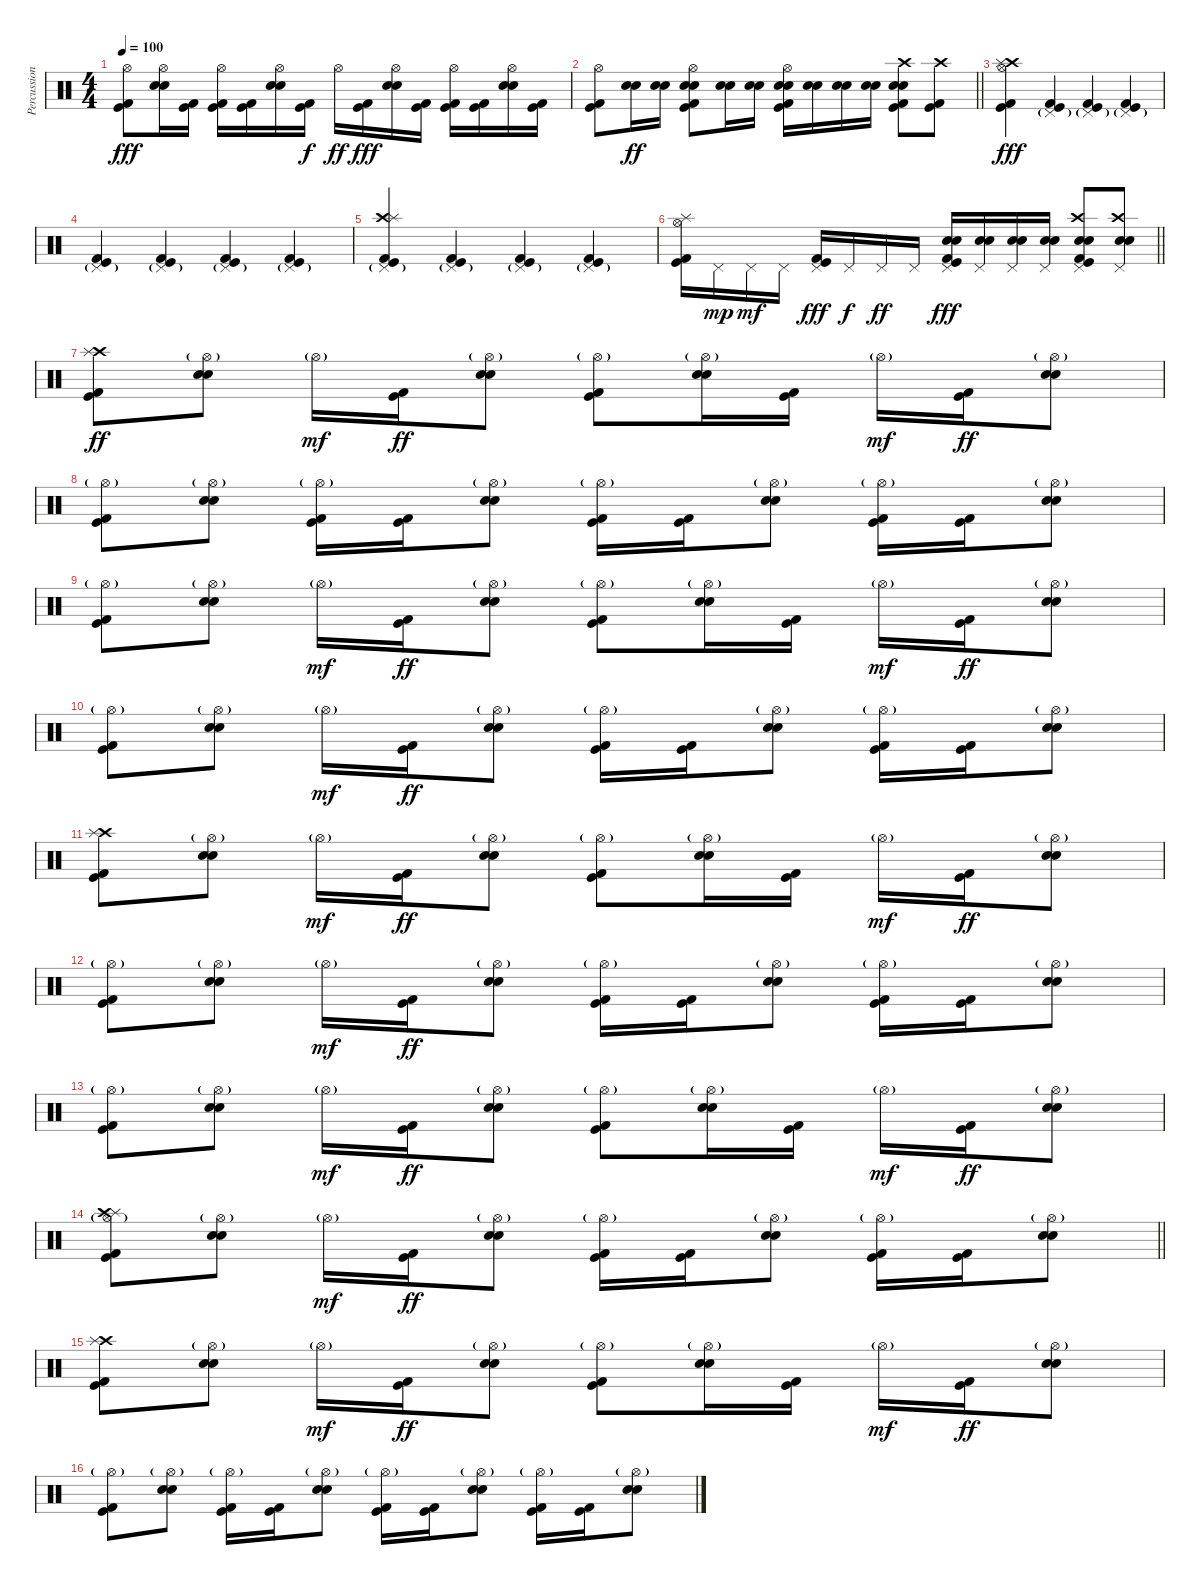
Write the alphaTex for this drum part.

\track ("Percussion" "Percussion") {instrument percussion}
\staff {score}
\articulation defaults
\ts (4 4)
\tempo 100
\clef neutral
\ks c
("Hi-Hat (open)" "Kick (hit)" "Kick (hit) 2").8{dy fff} ("Hi-Hat (open)" "Electric Snare (hit)" "Snare (hit) 2").16 ("Kick (hit)" "Kick (hit) 2").16 ("Hi-Hat (open)" "Kick (hit)" "Kick (hit) 2").16 ("Kick (hit)" "Kick (hit) 2").16 ("Hi-Hat (open)" "Electric Snare (hit)" "Snare (hit) 2").16 ("Kick (hit)" "Kick (hit) 2").16{dy f} "Hi-Hat (open)".16{dy ff} ("Kick (hit)" "Kick (hit) 2").16{dy fff} ("Hi-Hat (open)" "Electric Snare (hit)" "Snare (hit) 2").16 ("Kick (hit)" "Kick (hit) 2").16 ("Hi-Hat (open)" "Kick (hit)" "Kick (hit) 2").16 ("Kick (hit)" "Kick (hit) 2").16 ("Hi-Hat (open)" "Electric Snare (hit)" "Snare (hit) 2").16 ("Kick (hit)" "Kick (hit) 2").16 |
\barLineRight lightlight
("Hi-Hat (open)" "Kick (hit)" "Kick (hit) 2").8 ("Electric Snare (hit)" "Snare (hit) 2").16{dy ff} ("Electric Snare (hit)" "Snare (hit) 2").16 ("Hi-Hat (open)" "Electric Snare (hit)" "Snare (hit) 2" "Kick (hit)" "Kick (hit) 2").8 ("Electric Snare (hit)" "Snare (hit) 2").16 ("Electric Snare (hit)" "Snare (hit) 2").16 ("Hi-Hat (open)" "Electric Snare (hit)" "Snare (hit) 2" "Kick (hit)" "Kick (hit) 2").16 ("Electric Snare (hit)" "Snare (hit) 2").16 ("Electric Snare (hit)" "Snare (hit) 2").16 ("Electric Snare (hit)" "Snare (hit) 2").16 ("Crash high (hit)" "Electric Snare (hit)" "Snare (hit) 2" "Kick (hit)" "Kick (hit) 2").8 ("Crash high (hit)" "Kick (hit)" "Kick (hit) 2").8 |
("Crash high (hit)" "Splash (hit)" "Hi-Hat (open)" "Kick (hit)" "Kick (hit) 2").4{dy fff} ("Pedal Hi-Hat (hit)"{g} "Kick (hit)" "Kick (hit) 2").4 ("Pedal Hi-Hat (hit)"{g} "Kick (hit)" "Kick (hit) 2").4 ("Pedal Hi-Hat (hit)"{g} "Kick (hit)" "Kick (hit) 2").4 |
("Pedal Hi-Hat (hit)"{g} "Kick (hit)" "Kick (hit) 2").4 ("Pedal Hi-Hat (hit)"{g} "Kick (hit)" "Kick (hit) 2").4 ("Pedal Hi-Hat (hit)"{g} "Kick (hit)" "Kick (hit) 2").4 ("Pedal Hi-Hat (hit)"{g} "Kick (hit)" "Kick (hit) 2").4 |
("Crash high (hit)" "Splash (hit)" "Pedal Hi-Hat (hit)"{g} "Kick (hit)" "Kick (hit) 2").4 ("Pedal Hi-Hat (hit)"{g} "Kick (hit)" "Kick (hit) 2").4 ("Pedal Hi-Hat (hit)"{g} "Kick (hit)" "Kick (hit) 2").4 ("Pedal Hi-Hat (hit)"{g} "Kick (hit)" "Kick (hit) 2").4 |
\barLineRight lightlight
("Splash (hit)" "Hi-Hat (open)" "Kick (hit)" "Kick (hit) 2").16 "Pedal Hi-Hat (hit)".16{dy mp} "Pedal Hi-Hat (hit)".16{dy mf} "Pedal Hi-Hat (hit)".16 ("Pedal Hi-Hat (hit)" "Kick (hit)" "Kick (hit) 2").16{dy fff} "Pedal Hi-Hat (hit)".16{dy f} "Pedal Hi-Hat (hit)".16{dy ff} "Pedal Hi-Hat (hit)".16 ("Electric Snare (hit)" "Snare (hit) 2" "Pedal Hi-Hat (hit)" "Kick (hit)" "Kick (hit) 2").16{dy fff} ("Electric Snare (hit)" "Snare (hit) 2" "Pedal Hi-Hat (hit)").16 ("Electric Snare (hit)" "Snare (hit) 2" "Pedal Hi-Hat (hit)").16 ("Electric Snare (hit)" "Snare (hit) 2" "Pedal Hi-Hat (hit)").16 ("Crash high (hit)" "Electric Snare (hit)" "Snare (hit) 2" "Pedal Hi-Hat (hit)" "Kick (hit)" "Kick (hit) 2").8 ("Crash high (hit)" "Electric Snare (hit)" "Snare (hit) 2" "Pedal Hi-Hat (hit)").8 |
("Crash high (hit)" "Splash (hit)" "Kick (hit)" "Kick (hit) 2").8{dy ff} ("Hi-Hat (open)"{g} "Electric Snare (hit)" "Snare (hit) 2").8 "Hi-Hat (open)"{g}.16{dy mf} ("Kick (hit)" "Kick (hit) 2").16{dy ff} ("Hi-Hat (open)"{g} "Electric Snare (hit)" "Snare (hit) 2").8 ("Hi-Hat (open)"{g} "Kick (hit)" "Kick (hit) 2").8 ("Hi-Hat (open)"{g} "Electric Snare (hit)" "Snare (hit) 2").16 ("Kick (hit)" "Kick (hit) 2").16 "Hi-Hat (open)"{g}.16{dy mf} ("Kick (hit)" "Kick (hit) 2").16{dy ff} ("Hi-Hat (open)"{g} "Electric Snare (hit)" "Snare (hit) 2").8 |
("Hi-Hat (open)"{g} "Kick (hit)" "Kick (hit) 2").8 ("Hi-Hat (open)"{g} "Electric Snare (hit)" "Snare (hit) 2").8 ("Hi-Hat (open)"{g} "Kick (hit)" "Kick (hit) 2").16 ("Kick (hit)" "Kick (hit) 2").16 ("Hi-Hat (open)"{g} "Electric Snare (hit)" "Snare (hit) 2").8 ("Hi-Hat (open)"{g} "Kick (hit)" "Kick (hit) 2").16 ("Kick (hit)" "Kick (hit) 2").16 ("Hi-Hat (open)"{g} "Electric Snare (hit)" "Snare (hit) 2").8 ("Hi-Hat (open)"{g} "Kick (hit)" "Kick (hit) 2").16 ("Kick (hit)" "Kick (hit) 2").16 ("Hi-Hat (open)"{g} "Electric Snare (hit)" "Snare (hit) 2").8 |
("Hi-Hat (open)"{g} "Kick (hit)" "Kick (hit) 2").8 ("Hi-Hat (open)"{g} "Electric Snare (hit)" "Snare (hit) 2").8 "Hi-Hat (open)"{g}.16{dy mf} ("Kick (hit)" "Kick (hit) 2").16{dy ff} ("Hi-Hat (open)"{g} "Electric Snare (hit)" "Snare (hit) 2").8 ("Hi-Hat (open)"{g} "Kick (hit)" "Kick (hit) 2").8 ("Hi-Hat (open)"{g} "Electric Snare (hit)" "Snare (hit) 2").16 ("Kick (hit)" "Kick (hit) 2").16 "Hi-Hat (open)"{g}.16{dy mf} ("Kick (hit)" "Kick (hit) 2").16{dy ff} ("Hi-Hat (open)"{g} "Electric Snare (hit)" "Snare (hit) 2").8 |
("Hi-Hat (open)"{g} "Kick (hit)" "Kick (hit) 2").8 ("Hi-Hat (open)"{g} "Electric Snare (hit)" "Snare (hit) 2").8 "Hi-Hat (open)"{g}.16{dy mf} ("Kick (hit)" "Kick (hit) 2").16{dy ff} ("Hi-Hat (open)"{g} "Electric Snare (hit)" "Snare (hit) 2").8 ("Hi-Hat (open)"{g} "Kick (hit)" "Kick (hit) 2").16 ("Kick (hit)" "Kick (hit) 2").16 ("Hi-Hat (open)"{g} "Electric Snare (hit)" "Snare (hit) 2").8 ("Hi-Hat (open)"{g} "Kick (hit)" "Kick (hit) 2").16 ("Kick (hit)" "Kick (hit) 2").16 ("Hi-Hat (open)"{g} "Electric Snare (hit)" "Snare (hit) 2").8 |
("Crash high (hit)" "Splash (hit)" "Kick (hit)" "Kick (hit) 2").8 ("Hi-Hat (open)"{g} "Electric Snare (hit)" "Snare (hit) 2").8 "Hi-Hat (open)"{g}.16{dy mf} ("Kick (hit)" "Kick (hit) 2").16{dy ff} ("Hi-Hat (open)"{g} "Electric Snare (hit)" "Snare (hit) 2").8 ("Hi-Hat (open)"{g} "Kick (hit)" "Kick (hit) 2").8 ("Hi-Hat (open)"{g} "Electric Snare (hit)" "Snare (hit) 2").16 ("Kick (hit)" "Kick (hit) 2").16 "Hi-Hat (open)"{g}.16{dy mf} ("Kick (hit)" "Kick (hit) 2").16{dy ff} ("Hi-Hat (open)"{g} "Electric Snare (hit)" "Snare (hit) 2").8 |
("Hi-Hat (open)"{g} "Kick (hit)" "Kick (hit) 2").8 ("Hi-Hat (open)"{g} "Electric Snare (hit)" "Snare (hit) 2").8 "Hi-Hat (open)"{g}.16{dy mf} ("Kick (hit)" "Kick (hit) 2").16{dy ff} ("Hi-Hat (open)"{g} "Electric Snare (hit)" "Snare (hit) 2").8 ("Hi-Hat (open)"{g} "Kick (hit)" "Kick (hit) 2").16 ("Kick (hit)" "Kick (hit) 2").16 ("Hi-Hat (open)"{g} "Electric Snare (hit)" "Snare (hit) 2").8 ("Hi-Hat (open)"{g} "Kick (hit)" "Kick (hit) 2").16 ("Kick (hit)" "Kick (hit) 2").16 ("Hi-Hat (open)"{g} "Electric Snare (hit)" "Snare (hit) 2").8 |
("Hi-Hat (open)"{g} "Kick (hit)" "Kick (hit) 2").8 ("Hi-Hat (open)"{g} "Electric Snare (hit)" "Snare (hit) 2").8 "Hi-Hat (open)"{g}.16{dy mf} ("Kick (hit)" "Kick (hit) 2").16{dy ff} ("Hi-Hat (open)"{g} "Electric Snare (hit)" "Snare (hit) 2").8 ("Hi-Hat (open)"{g} "Kick (hit)" "Kick (hit) 2").8 ("Hi-Hat (open)"{g} "Electric Snare (hit)" "Snare (hit) 2").16 ("Kick (hit)" "Kick (hit) 2").16 "Hi-Hat (open)"{g}.16{dy mf} ("Kick (hit)" "Kick (hit) 2").16{dy ff} ("Hi-Hat (open)"{g} "Electric Snare (hit)" "Snare (hit) 2").8 |
\barLineRight lightlight
("Hi-Hat (open)"{g} "Splash (hit)" "Crash high (hit)" "Kick (hit)" "Kick (hit) 2").8 ("Hi-Hat (open)"{g} "Electric Snare (hit)" "Snare (hit) 2").8 "Hi-Hat (open)"{g}.16{dy mf} ("Kick (hit)" "Kick (hit) 2").16{dy ff} ("Hi-Hat (open)"{g} "Electric Snare (hit)" "Snare (hit) 2").8 ("Hi-Hat (open)"{g} "Kick (hit)" "Kick (hit) 2").16 ("Kick (hit)" "Kick (hit) 2").16 ("Hi-Hat (open)"{g} "Electric Snare (hit)" "Snare (hit) 2").8 ("Hi-Hat (open)"{g} "Kick (hit)" "Kick (hit) 2").16 ("Kick (hit)" "Kick (hit) 2").16 ("Hi-Hat (open)"{g} "Electric Snare (hit)" "Snare (hit) 2").8 |
("Crash high (hit)" "Splash (hit)" "Kick (hit)" "Kick (hit) 2").8 ("Hi-Hat (open)"{g} "Electric Snare (hit)" "Snare (hit) 2").8 "Hi-Hat (open)"{g}.16{dy mf} ("Kick (hit)" "Kick (hit) 2").16{dy ff} ("Hi-Hat (open)"{g} "Electric Snare (hit)" "Snare (hit) 2").8 ("Hi-Hat (open)"{g} "Kick (hit)" "Kick (hit) 2").8 ("Hi-Hat (open)"{g} "Electric Snare (hit)" "Snare (hit) 2").16 ("Kick (hit)" "Kick (hit) 2").16 "Hi-Hat (open)"{g}.16{dy mf} ("Kick (hit)" "Kick (hit) 2").16{dy ff} ("Hi-Hat (open)"{g} "Electric Snare (hit)" "Snare (hit) 2").8 |
("Hi-Hat (open)"{g} "Kick (hit)" "Kick (hit) 2").8 ("Hi-Hat (open)"{g} "Electric Snare (hit)" "Snare (hit) 2").8 ("Hi-Hat (open)"{g} "Kick (hit)" "Kick (hit) 2").16 ("Kick (hit)" "Kick (hit) 2").16 ("Hi-Hat (open)"{g} "Electric Snare (hit)" "Snare (hit) 2").8 ("Hi-Hat (open)"{g} "Kick (hit)" "Kick (hit) 2").16 ("Kick (hit)" "Kick (hit) 2").16 ("Hi-Hat (open)"{g} "Electric Snare (hit)" "Snare (hit) 2").8 ("Hi-Hat (open)"{g} "Kick (hit)" "Kick (hit) 2").16 ("Kick (hit)" "Kick (hit) 2").16 ("Hi-Hat (open)"{g} "Electric Snare (hit)" "Snare (hit) 2").8
